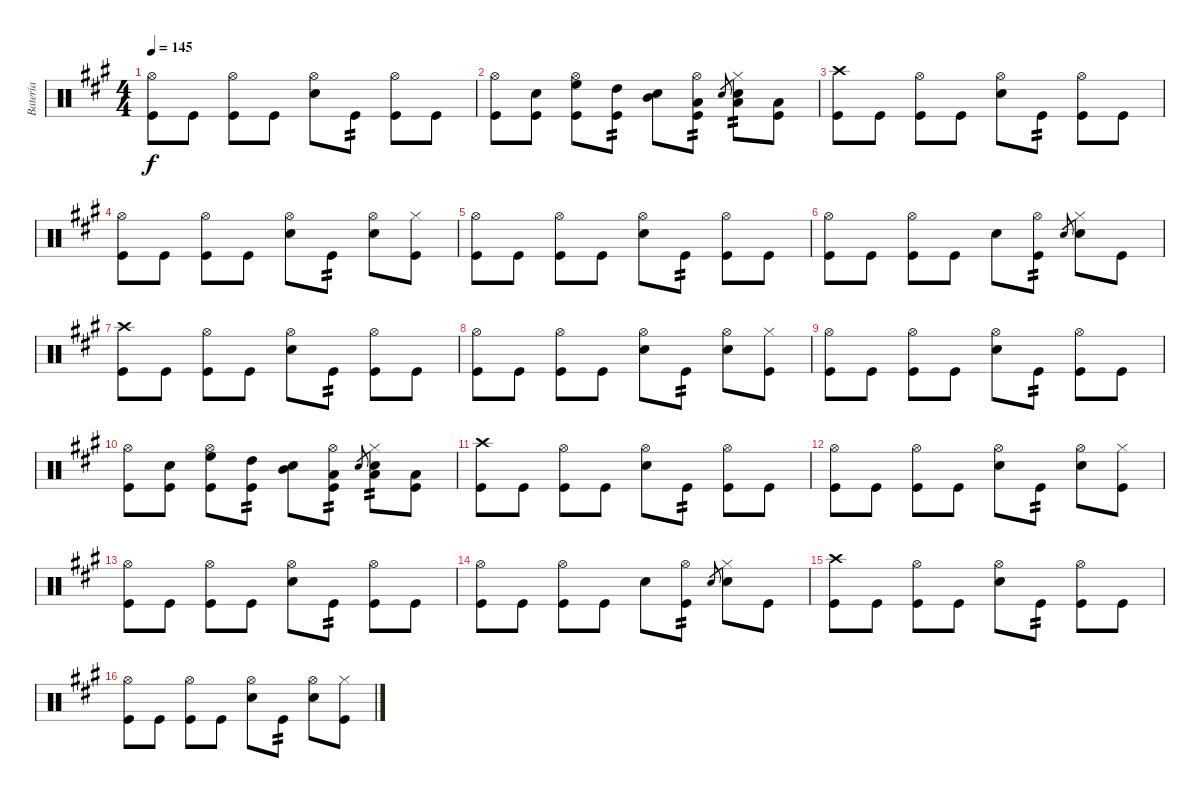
\track ("Batería" "Batería") {instrument percussion}
\staff {score}
\articulation defaults
\ts (4 4)
\tempo 145
\clef neutral
\ks a
("Hi-Hat (open)" "Kick (hit)").8{dy f} "Kick (hit)".8 ("Hi-Hat (open)" "Kick (hit)").8 "Kick (hit)".8 ("Hi-Hat (open)" "Electric Snare (hit)").8 "Kick (hit)".8{tp 2} ("Hi-Hat (open)" "Kick (hit)").8 "Kick (hit)".8 |
("Hi-Hat (open)" "Kick (hit)").8 ("Electric Snare (hit)" "Kick (hit)").8 ("Hi-Hat (open)" "High Floor Tom (hit)" "Kick (hit)").8 ("High Tom (hit)" "Kick (hit)").8{tp 2} ("Mid Tom (hit)" "Electric Snare (hit)").8 ("Hi-Hat (open)" "Low Tom (hit)" "Kick (hit)").8{tp 2} "Electric Snare (hit)".8{gr} ("Hi-Hat (closed)" "Low Tom (hit)" "Electric Snare (hit)").8{tp 2} ("Low Floor Tom (hit)" "Kick (hit)").8 |
("Crash high (hit)" "Kick (hit)").8 "Kick (hit)".8 ("Hi-Hat (open)" "Kick (hit)").8 "Kick (hit)".8 ("Hi-Hat (open)" "Electric Snare (hit)").8 "Kick (hit)".8{tp 2} ("Hi-Hat (open)" "Kick (hit)").8 "Kick (hit)".8 |
("Hi-Hat (open)" "Kick (hit)").8 "Kick (hit)".8 ("Hi-Hat (open)" "Kick (hit)").8 "Kick (hit)".8 ("Hi-Hat (open)" "Electric Snare (hit)").8 "Kick (hit)".8{tp 2} ("Hi-Hat (open)" "Electric Snare (hit)").8 ("Hi-Hat (closed)" "Kick (hit)").8 |
("Hi-Hat (open)" "Kick (hit)").8 "Kick (hit)".8 ("Hi-Hat (open)" "Kick (hit)").8 "Kick (hit)".8 ("Hi-Hat (open)" "Electric Snare (hit)").8 "Kick (hit)".8{tp 2} ("Hi-Hat (open)" "Kick (hit)").8 "Kick (hit)".8 |
("Hi-Hat (open)" "Kick (hit)").8 "Kick (hit)".8 ("Hi-Hat (open)" "Kick (hit)").8 "Kick (hit)".8 "Electric Snare (hit)".8 ("Hi-Hat (open)" "Kick (hit)").8{tp 2} "Electric Snare (hit)".8{gr} ("Hi-Hat (closed)" "Electric Snare (hit)").8 "Kick (hit)".8 |
("Crash high (hit)" "Kick (hit)").8 "Kick (hit)".8 ("Hi-Hat (open)" "Kick (hit)").8 "Kick (hit)".8 ("Hi-Hat (open)" "Electric Snare (hit)").8 "Kick (hit)".8{tp 2} ("Hi-Hat (open)" "Kick (hit)").8 "Kick (hit)".8 |
("Hi-Hat (open)" "Kick (hit)").8 "Kick (hit)".8 ("Hi-Hat (open)" "Kick (hit)").8 "Kick (hit)".8 ("Hi-Hat (open)" "Electric Snare (hit)").8 "Kick (hit)".8{tp 2} ("Hi-Hat (open)" "Electric Snare (hit)").8 ("Hi-Hat (closed)" "Kick (hit)").8 |
("Hi-Hat (open)" "Kick (hit)").8 "Kick (hit)".8 ("Hi-Hat (open)" "Kick (hit)").8 "Kick (hit)".8 ("Hi-Hat (open)" "Electric Snare (hit)").8 "Kick (hit)".8{tp 2} ("Hi-Hat (open)" "Kick (hit)").8 "Kick (hit)".8 |
("Hi-Hat (open)" "Kick (hit)").8 ("Electric Snare (hit)" "Kick (hit)").8 ("Hi-Hat (open)" "High Floor Tom (hit)" "Kick (hit)").8 ("High Tom (hit)" "Kick (hit)").8{tp 2} ("Mid Tom (hit)" "Electric Snare (hit)").8 ("Hi-Hat (open)" "Low Tom (hit)" "Kick (hit)").8{tp 2} "Electric Snare (hit)".8{gr} ("Hi-Hat (closed)" "Low Tom (hit)" "Electric Snare (hit)").8{tp 2} ("Low Floor Tom (hit)" "Kick (hit)").8 |
("Crash high (hit)" "Kick (hit)").8 "Kick (hit)".8 ("Hi-Hat (open)" "Kick (hit)").8 "Kick (hit)".8 ("Hi-Hat (open)" "Electric Snare (hit)").8 "Kick (hit)".8{tp 2} ("Hi-Hat (open)" "Kick (hit)").8 "Kick (hit)".8 |
("Hi-Hat (open)" "Kick (hit)").8 "Kick (hit)".8 ("Hi-Hat (open)" "Kick (hit)").8 "Kick (hit)".8 ("Hi-Hat (open)" "Electric Snare (hit)").8 "Kick (hit)".8{tp 2} ("Hi-Hat (open)" "Electric Snare (hit)").8 ("Hi-Hat (closed)" "Kick (hit)").8 |
("Hi-Hat (open)" "Kick (hit)").8 "Kick (hit)".8 ("Hi-Hat (open)" "Kick (hit)").8 "Kick (hit)".8 ("Hi-Hat (open)" "Electric Snare (hit)").8 "Kick (hit)".8{tp 2} ("Hi-Hat (open)" "Kick (hit)").8 "Kick (hit)".8 |
("Hi-Hat (open)" "Kick (hit)").8 "Kick (hit)".8 ("Hi-Hat (open)" "Kick (hit)").8 "Kick (hit)".8 "Electric Snare (hit)".8 ("Hi-Hat (open)" "Kick (hit)").8{tp 2} "Electric Snare (hit)".8{gr} ("Hi-Hat (closed)" "Electric Snare (hit)").8 "Kick (hit)".8 |
("Crash high (hit)" "Kick (hit)").8 "Kick (hit)".8 ("Hi-Hat (open)" "Kick (hit)").8 "Kick (hit)".8 ("Hi-Hat (open)" "Electric Snare (hit)").8 "Kick (hit)".8{tp 2} ("Hi-Hat (open)" "Kick (hit)").8 "Kick (hit)".8 |
("Hi-Hat (open)" "Kick (hit)").8 "Kick (hit)".8 ("Hi-Hat (open)" "Kick (hit)").8 "Kick (hit)".8 ("Hi-Hat (open)" "Electric Snare (hit)").8 "Kick (hit)".8{tp 2} ("Hi-Hat (open)" "Electric Snare (hit)").8 ("Hi-Hat (closed)" "Kick (hit)").8
